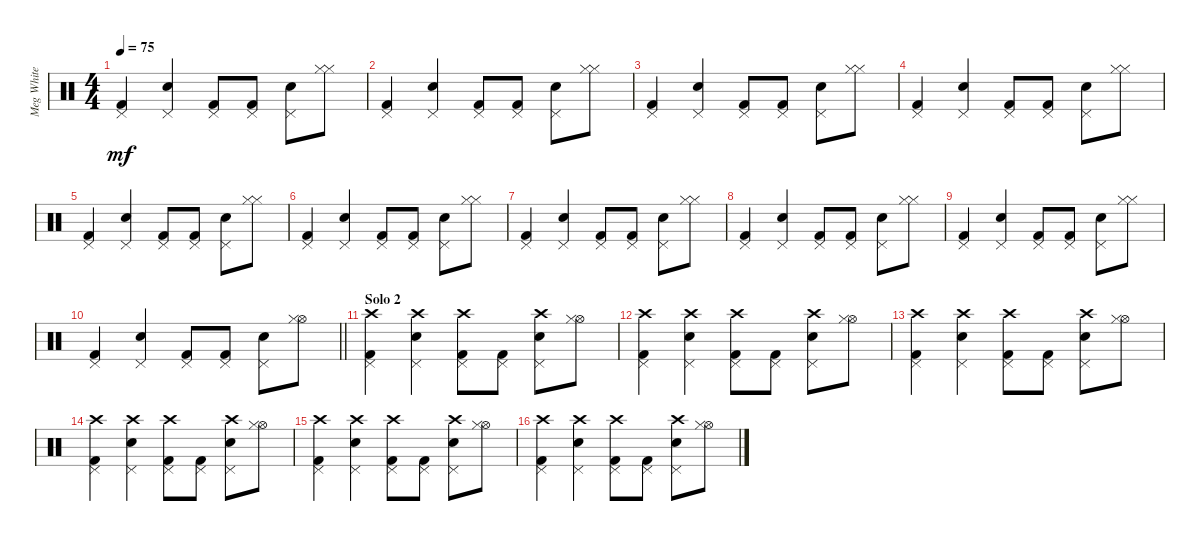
\track ("Meg White" "Meg White") {instrument percussion}
\staff {score}
\articulation defaults
\ts (4 4)
\tempo 75
\clef neutral
\ks c
("Pedal Hi-Hat (hit)" "Kick (hit) 2").4{dy mf} ("Pedal Hi-Hat (hit)" "Electric Snare (hit)").4 ("Pedal Hi-Hat (hit)" "Kick (hit) 2").8 ("Pedal Hi-Hat (hit)" "Kick (hit) 2").8 ("Pedal Hi-Hat (hit)" "Electric Snare (hit)").8 ("Hi-Hat (closed)" "Hi-Hat (closed)").8 |
("Pedal Hi-Hat (hit)" "Kick (hit) 2").4 ("Pedal Hi-Hat (hit)" "Electric Snare (hit)").4 ("Pedal Hi-Hat (hit)" "Kick (hit) 2").8 ("Pedal Hi-Hat (hit)" "Kick (hit) 2").8 ("Pedal Hi-Hat (hit)" "Electric Snare (hit)").8 ("Hi-Hat (closed)" "Hi-Hat (closed)").8 |
("Pedal Hi-Hat (hit)" "Kick (hit) 2").4 ("Pedal Hi-Hat (hit)" "Electric Snare (hit)").4 ("Pedal Hi-Hat (hit)" "Kick (hit) 2").8 ("Pedal Hi-Hat (hit)" "Kick (hit) 2").8 ("Pedal Hi-Hat (hit)" "Electric Snare (hit)").8 ("Hi-Hat (closed)" "Hi-Hat (closed)").8 |
("Pedal Hi-Hat (hit)" "Kick (hit) 2").4 ("Pedal Hi-Hat (hit)" "Electric Snare (hit)").4 ("Pedal Hi-Hat (hit)" "Kick (hit) 2").8 ("Pedal Hi-Hat (hit)" "Kick (hit) 2").8 ("Pedal Hi-Hat (hit)" "Electric Snare (hit)").8 ("Hi-Hat (closed)" "Hi-Hat (closed)").8 |
("Pedal Hi-Hat (hit)" "Kick (hit) 2").4 ("Pedal Hi-Hat (hit)" "Electric Snare (hit)").4 ("Pedal Hi-Hat (hit)" "Kick (hit) 2").8 ("Pedal Hi-Hat (hit)" "Kick (hit) 2").8 ("Pedal Hi-Hat (hit)" "Electric Snare (hit)").8 ("Hi-Hat (closed)" "Hi-Hat (closed)").8 |
("Pedal Hi-Hat (hit)" "Kick (hit) 2").4 ("Pedal Hi-Hat (hit)" "Electric Snare (hit)").4 ("Pedal Hi-Hat (hit)" "Kick (hit) 2").8 ("Pedal Hi-Hat (hit)" "Kick (hit) 2").8 ("Pedal Hi-Hat (hit)" "Electric Snare (hit)").8 ("Hi-Hat (closed)" "Hi-Hat (closed)").8 |
("Pedal Hi-Hat (hit)" "Kick (hit) 2").4 ("Pedal Hi-Hat (hit)" "Electric Snare (hit)").4 ("Pedal Hi-Hat (hit)" "Kick (hit) 2").8 ("Pedal Hi-Hat (hit)" "Kick (hit) 2").8 ("Pedal Hi-Hat (hit)" "Electric Snare (hit)").8 ("Hi-Hat (closed)" "Hi-Hat (closed)").8 |
("Pedal Hi-Hat (hit)" "Kick (hit) 2").4 ("Pedal Hi-Hat (hit)" "Electric Snare (hit)").4 ("Pedal Hi-Hat (hit)" "Kick (hit) 2").8 ("Pedal Hi-Hat (hit)" "Kick (hit) 2").8 ("Pedal Hi-Hat (hit)" "Electric Snare (hit)").8 ("Hi-Hat (closed)" "Hi-Hat (closed)").8 |
("Pedal Hi-Hat (hit)" "Kick (hit) 2").4 ("Pedal Hi-Hat (hit)" "Electric Snare (hit)").4 ("Pedal Hi-Hat (hit)" "Kick (hit) 2").8 ("Pedal Hi-Hat (hit)" "Kick (hit) 2").8 ("Pedal Hi-Hat (hit)" "Electric Snare (hit)").8 ("Hi-Hat (closed)" "Hi-Hat (closed)").8 |
\barLineRight lightlight
("Pedal Hi-Hat (hit)" "Kick (hit) 2").4 ("Pedal Hi-Hat (hit)" "Electric Snare (hit)").4 ("Pedal Hi-Hat (hit)" "Kick (hit) 2").8 ("Pedal Hi-Hat (hit)" "Kick (hit) 2").8 ("Pedal Hi-Hat (hit)" "Electric Snare (hit)").8 ("Hi-Hat (open)" "Hi-Hat (closed)").8 |
\section ("" "Solo 2")
("Pedal Hi-Hat (hit)" "Kick (hit) 2" "Crash high (hit)").4 ("Pedal Hi-Hat (hit)" "Electric Snare (hit)" "Crash high (hit)").4 ("Pedal Hi-Hat (hit)" "Kick (hit) 2" "Crash high (hit)").8 ("Pedal Hi-Hat (hit)" "Kick (hit) 2").8 ("Pedal Hi-Hat (hit)" "Electric Snare (hit)" "Crash high (hit)").8 ("Hi-Hat (open)" "Hi-Hat (closed)").8 |
("Pedal Hi-Hat (hit)" "Kick (hit) 2" "Crash high (hit)").4 ("Pedal Hi-Hat (hit)" "Electric Snare (hit)" "Crash high (hit)").4 ("Pedal Hi-Hat (hit)" "Kick (hit) 2" "Crash high (hit)").8 ("Pedal Hi-Hat (hit)" "Kick (hit) 2").8 ("Pedal Hi-Hat (hit)" "Electric Snare (hit)" "Crash high (hit)").8 ("Hi-Hat (open)" "Hi-Hat (closed)").8 |
("Pedal Hi-Hat (hit)" "Kick (hit) 2" "Crash high (hit)").4 ("Pedal Hi-Hat (hit)" "Electric Snare (hit)" "Crash high (hit)").4 ("Pedal Hi-Hat (hit)" "Kick (hit) 2" "Crash high (hit)").8 ("Pedal Hi-Hat (hit)" "Kick (hit) 2").8 ("Pedal Hi-Hat (hit)" "Electric Snare (hit)" "Crash high (hit)").8 ("Hi-Hat (open)" "Hi-Hat (closed)").8 |
("Pedal Hi-Hat (hit)" "Kick (hit) 2" "Crash high (hit)").4 ("Pedal Hi-Hat (hit)" "Electric Snare (hit)" "Crash high (hit)").4 ("Pedal Hi-Hat (hit)" "Kick (hit) 2" "Crash high (hit)").8 ("Pedal Hi-Hat (hit)" "Kick (hit) 2").8 ("Pedal Hi-Hat (hit)" "Electric Snare (hit)" "Crash high (hit)").8 ("Hi-Hat (open)" "Hi-Hat (closed)").8 |
("Pedal Hi-Hat (hit)" "Kick (hit) 2" "Crash high (hit)").4 ("Pedal Hi-Hat (hit)" "Electric Snare (hit)" "Crash high (hit)").4 ("Pedal Hi-Hat (hit)" "Kick (hit) 2" "Crash high (hit)").8 ("Pedal Hi-Hat (hit)" "Kick (hit) 2").8 ("Pedal Hi-Hat (hit)" "Electric Snare (hit)" "Crash high (hit)").8 ("Hi-Hat (open)" "Hi-Hat (closed)").8 |
("Pedal Hi-Hat (hit)" "Kick (hit) 2" "Crash high (hit)").4 ("Pedal Hi-Hat (hit)" "Electric Snare (hit)" "Crash high (hit)").4 ("Pedal Hi-Hat (hit)" "Kick (hit) 2" "Crash high (hit)").8 ("Pedal Hi-Hat (hit)" "Kick (hit) 2").8 ("Pedal Hi-Hat (hit)" "Electric Snare (hit)" "Crash high (hit)").8 ("Hi-Hat (open)" "Hi-Hat (closed)").8
